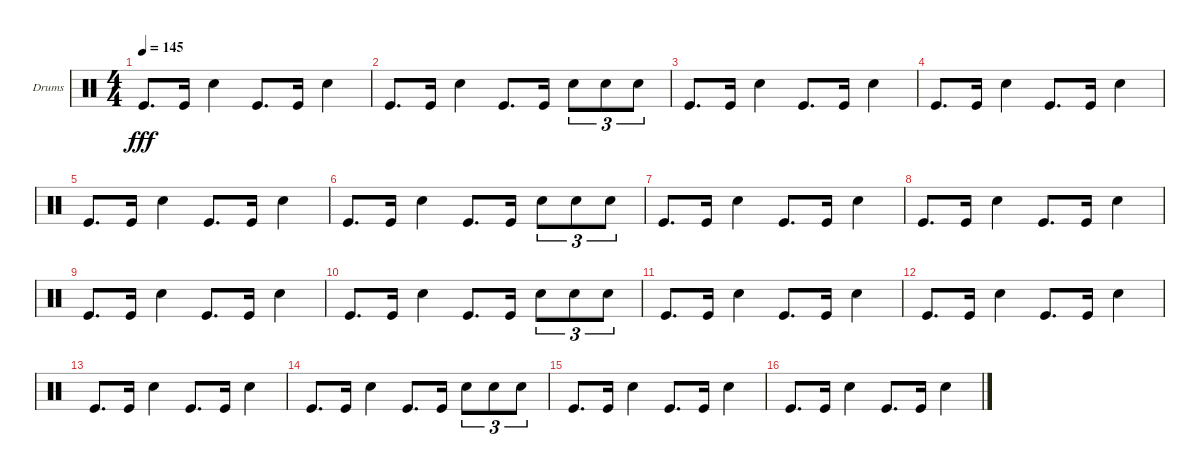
\defaultSystemsLayout 4
\bracketExtendMode groupsimilarinstruments
\firstSystemTrackNameOrientation horizontal
\otherSystemsTrackNameOrientation horizontal
\track ("Helders" "Drums") {instrument percussion}
\staff {score}
\articulation defaults
\ts (4 4)
\tempo 145
\clef neutral
\ks c "Kick (hit)".8{d dy fff} "Kick (hit)".16 "Snare (hit) 2".4 "Kick (hit)".8{d} "Kick (hit)".16 "Snare (hit) 2".4
|
"Kick (hit)".8{d} "Kick (hit)".16 "Snare (hit) 2".4 "Kick (hit)".8{d} "Kick (hit)".16 "Snare (hit) 2".8{tu (3 2)} "Snare (hit) 2".8{tu (3 2)} "Snare (hit) 2".8{tu (3 2)} |
"Kick (hit)".8{d} "Kick (hit)".16 "Snare (hit) 2".4 "Kick (hit)".8{d} "Kick (hit)".16 "Snare (hit) 2".4 |
"Kick (hit)".8{d} "Kick (hit)".16 "Snare (hit) 2".4 "Kick (hit)".8{d} "Kick (hit)".16 "Snare (hit) 2".4 |
"Kick (hit)".8{d} "Kick (hit)".16 "Snare (hit) 2".4 "Kick (hit)".8{d} "Kick (hit)".16 "Snare (hit) 2".4 |
"Kick (hit)".8{d} "Kick (hit)".16 "Snare (hit) 2".4 "Kick (hit)".8{d} "Kick (hit)".16 "Snare (hit) 2".8{tu (3 2)} "Snare (hit) 2".8{tu (3 2)} "Snare (hit) 2".8{tu (3 2)} |
"Kick (hit)".8{d} "Kick (hit)".16 "Snare (hit) 2".4 "Kick (hit)".8{d} "Kick (hit)".16 "Snare (hit) 2".4 |
"Kick (hit)".8{d} "Kick (hit)".16 "Snare (hit) 2".4 "Kick (hit)".8{d} "Kick (hit)".16 "Snare (hit) 2".4 |
"Kick (hit)".8{d} "Kick (hit)".16 "Snare (hit) 2".4 "Kick (hit)".8{d} "Kick (hit)".16 "Snare (hit) 2".4 |
"Kick (hit)".8{d} "Kick (hit)".16 "Snare (hit) 2".4 "Kick (hit)".8{d} "Kick (hit)".16 "Snare (hit) 2".8{tu (3 2)} "Snare (hit) 2".8{tu (3 2)} "Snare (hit) 2".8{tu (3 2)} |
"Kick (hit)".8{d} "Kick (hit)".16 "Snare (hit) 2".4 "Kick (hit)".8{d} "Kick (hit)".16 "Snare (hit) 2".4 |
"Kick (hit)".8{d} "Kick (hit)".16 "Snare (hit) 2".4 "Kick (hit)".8{d} "Kick (hit)".16 "Snare (hit) 2".4 |
"Kick (hit)".8{d} "Kick (hit)".16 "Snare (hit) 2".4 "Kick (hit)".8{d} "Kick (hit)".16 "Snare (hit) 2".4 |
"Kick (hit)".8{d} "Kick (hit)".16 "Snare (hit) 2".4 "Kick (hit)".8{d} "Kick (hit)".16 "Snare (hit) 2".8{tu (3 2)} "Snare (hit) 2".8{tu (3 2)} "Snare (hit) 2".8{tu (3 2)} |
"Kick (hit)".8{d} "Kick (hit)".16 "Snare (hit) 2".4 "Kick (hit)".8{d} "Kick (hit)".16 "Snare (hit) 2".4 |
"Kick (hit)".8{d} "Kick (hit)".16 "Snare (hit) 2".4 "Kick (hit)".8{d} "Kick (hit)".16 "Snare (hit) 2".4
